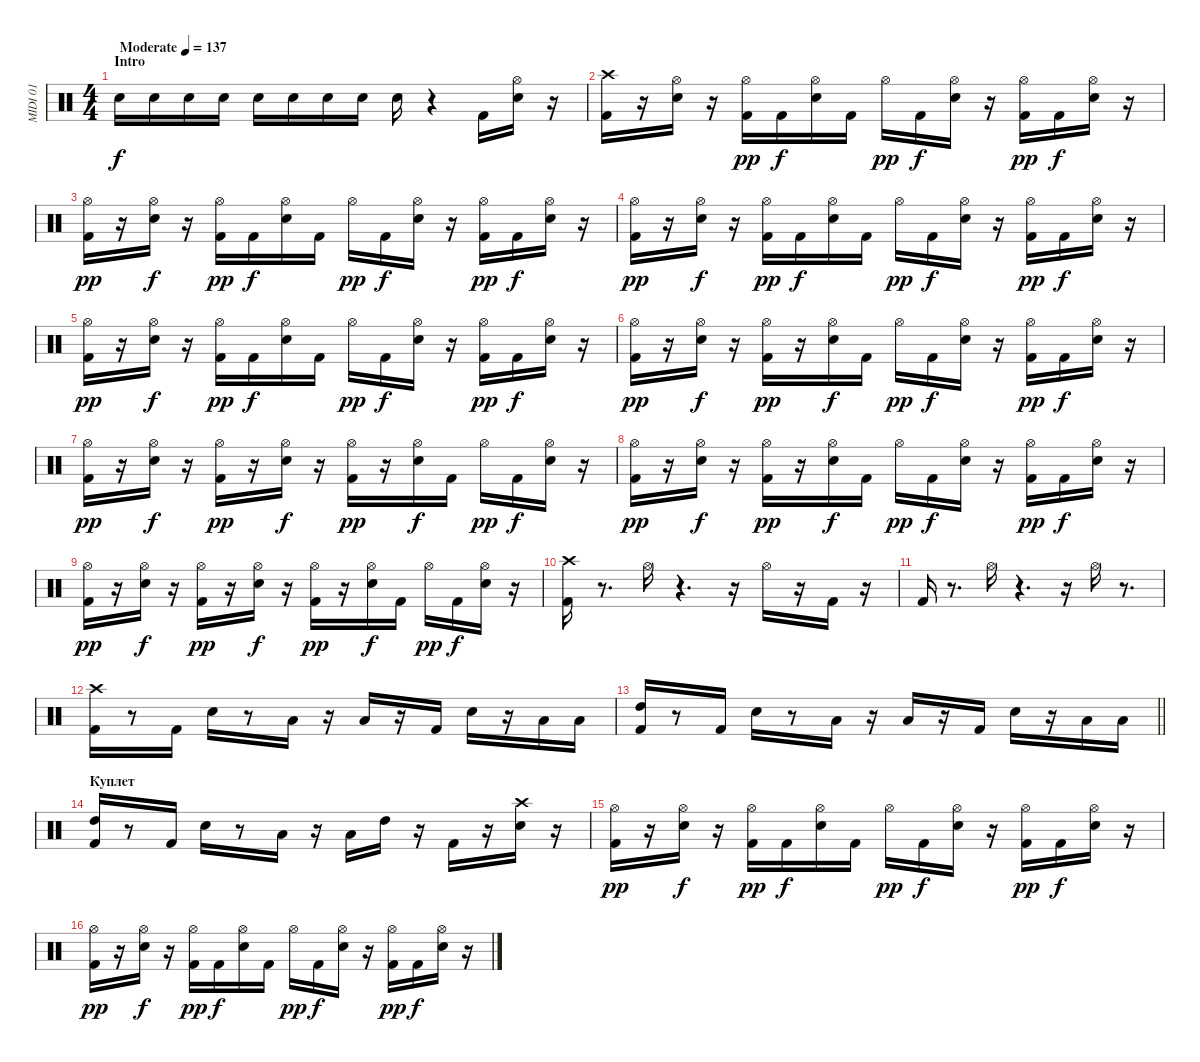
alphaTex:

\track ("MIDI 01" "MIDI 01") {instrument percussion}
\staff {score}
\articulation defaults
\ts (4 4)
\section ("" "Intro")
\tempo (137 "Moderate")
\clef neutral
\ks c "Snare (hit) 2".16{dy f} "Snare (hit) 2".16 "Snare (hit) 2".16 "Snare (hit) 2".16 "Snare (hit) 2".16 "Snare (hit) 2".16 "Snare (hit) 2".16 "Snare (hit) 2".16 "Snare (hit) 2".16
r.4 "Kick (hit) 2".16 ("Snare (hit) 2" "Hi-Hat (open)").16 r.16 |
("Kick (hit) 2" "Crash high (hit)").16 r.16 ("Snare (hit) 2" "Hi-Hat (open)").16 r.16 ("Kick (hit) 2" "Hi-Hat (open)").16{dy pp} "Kick (hit) 2".16{dy f} ("Snare (hit) 2" "Hi-Hat (open)").16 "Kick (hit) 2".16 "Hi-Hat (open)".16{dy pp} "Kick (hit) 2".16{dy f} ("Snare (hit) 2" "Hi-Hat (open)").16 r.16 ("Kick (hit) 2" "Hi-Hat (open)").16{dy pp} "Kick (hit) 2".16{dy f} ("Snare (hit) 2" "Hi-Hat (open)").16 r.16 |
("Kick (hit) 2" "Hi-Hat (open)").16{dy pp} r.16 ("Snare (hit) 2" "Hi-Hat (open)").16{dy f} r.16 ("Kick (hit) 2" "Hi-Hat (open)").16{dy pp} "Kick (hit) 2".16{dy f} ("Snare (hit) 2" "Hi-Hat (open)").16 "Kick (hit) 2".16 "Hi-Hat (open)".16{dy pp} "Kick (hit) 2".16{dy f} ("Snare (hit) 2" "Hi-Hat (open)").16 r.16 ("Kick (hit) 2" "Hi-Hat (open)").16{dy pp} "Kick (hit) 2".16{dy f} ("Snare (hit) 2" "Hi-Hat (open)").16 r.16 |
("Kick (hit) 2" "Hi-Hat (open)").16{dy pp} r.16 ("Snare (hit) 2" "Hi-Hat (open)").16{dy f} r.16 ("Kick (hit) 2" "Hi-Hat (open)").16{dy pp} "Kick (hit) 2".16{dy f} ("Snare (hit) 2" "Hi-Hat (open)").16 "Kick (hit) 2".16 "Hi-Hat (open)".16{dy pp} "Kick (hit) 2".16{dy f} ("Snare (hit) 2" "Hi-Hat (open)").16 r.16 ("Kick (hit) 2" "Hi-Hat (open)").16{dy pp} "Kick (hit) 2".16{dy f} ("Snare (hit) 2" "Hi-Hat (open)").16 r.16 |
("Kick (hit) 2" "Hi-Hat (open)").16{dy pp} r.16 ("Snare (hit) 2" "Hi-Hat (open)").16{dy f} r.16 ("Kick (hit) 2" "Hi-Hat (open)").16{dy pp} "Kick (hit) 2".16{dy f} ("Snare (hit) 2" "Hi-Hat (open)").16 "Kick (hit) 2".16 "Hi-Hat (open)".16{dy pp} "Kick (hit) 2".16{dy f} ("Snare (hit) 2" "Hi-Hat (open)").16 r.16 ("Kick (hit) 2" "Hi-Hat (open)").16{dy pp} "Kick (hit) 2".16{dy f} ("Snare (hit) 2" "Hi-Hat (open)").16 r.16 |
("Kick (hit) 2" "Hi-Hat (open)").16{dy pp} r.16 ("Hi-Hat (open)" "Snare (hit) 2").16{dy f} r.16 ("Hi-Hat (open)" "Kick (hit) 2").16{dy pp} r.16 ("Hi-Hat (open)" "Snare (hit) 2").16{dy f} "Kick (hit) 2".16 "Hi-Hat (open)".16{dy pp} "Kick (hit) 2".16{dy f} ("Hi-Hat (open)" "Snare (hit) 2").16 r.16 ("Hi-Hat (open)" "Kick (hit) 2").16{dy pp} "Kick (hit) 2".16{dy f} ("Hi-Hat (open)" "Snare (hit) 2").16 r.16 |
("Hi-Hat (open)" "Kick (hit) 2").16{dy pp} r.16 ("Hi-Hat (open)" "Snare (hit) 2").16{dy f} r.16 ("Hi-Hat (open)" "Kick (hit) 2").16{dy pp} r.16 ("Hi-Hat (open)" "Snare (hit) 2").16{dy f} r.16 ("Hi-Hat (open)" "Kick (hit) 2").16{dy pp} r.16 ("Hi-Hat (open)" "Snare (hit) 2").16{dy f} "Kick (hit) 2".16 "Hi-Hat (open)".16{dy pp} "Kick (hit) 2".16{dy f} ("Hi-Hat (open)" "Snare (hit) 2").16 r.16 |
("Hi-Hat (open)" "Kick (hit) 2").16{dy pp} r.16 ("Hi-Hat (open)" "Snare (hit) 2").16{dy f} r.16 ("Hi-Hat (open)" "Kick (hit) 2").16{dy pp} r.16 ("Hi-Hat (open)" "Snare (hit) 2").16{dy f} "Kick (hit) 2".16 "Hi-Hat (open)".16{dy pp} "Kick (hit) 2".16{dy f} ("Hi-Hat (open)" "Snare (hit) 2").16 r.16 ("Hi-Hat (open)" "Kick (hit) 2").16{dy pp} "Kick (hit) 2".16{dy f} ("Hi-Hat (open)" "Snare (hit) 2").16 r.16 |
("Hi-Hat (open)" "Kick (hit) 2").16{dy pp} r.16 ("Hi-Hat (open)" "Snare (hit) 2").16{dy f} r.16 ("Hi-Hat (open)" "Kick (hit) 2").16{dy pp} r.16 ("Hi-Hat (open)" "Snare (hit) 2").16{dy f} r.16 ("Hi-Hat (open)" "Kick (hit) 2").16{dy pp} r.16 ("Hi-Hat (open)" "Snare (hit) 2").16{dy f} "Kick (hit) 2".16 "Hi-Hat (open)".16{dy pp} "Kick (hit) 2".16{dy f} ("Hi-Hat (open)" "Snare (hit) 2").16 r.16 |
("Kick (hit) 2" "Crash high (hit)").16 r.8{d} "Hi-Hat (open)".16 r.4{d} r.16 "Hi-Hat (open)".16 r.16 "Kick (hit) 2".16 r.16 |
"Kick (hit) 2".16 r.8{d} "Hi-Hat (open)".16 r.4{d} r.16 "Hi-Hat (open)".16 r.8{d} |
("Kick (hit) 2" "Crash high (hit)").16 r.8 "Kick (hit) 2".16 "Snare (hit) 2".16 r.8 "Low Floor Tom (hit)".16 r.16 "Low Tom (hit)".16 r.16 "Kick (hit) 2".16 "Snare (hit) 2".16 r.16 "Low Floor Tom (hit)".16 "Low Tom (hit)".16 |
\barLineRight lightlight
("High Tom (hit)" "Kick (hit) 2").16 r.8 "Kick (hit) 2".16 "Snare (hit) 2".16 r.8 "Low Floor Tom (hit)".16 r.16 "Low Tom (hit)".16 r.16 "Kick (hit) 2".16 "Snare (hit) 2".16 r.16 "Low Floor Tom (hit)".16 "Low Tom (hit)".16 |
\section ("" "Куплет")
("Kick (hit) 2" "High Tom (hit)").16 r.8 "Kick (hit) 2".16 "Snare (hit) 2".16 r.8 "Low Floor Tom (hit)".16 r.16 "Low Tom (hit)".16 "High Tom (hit)".16 r.16 "Kick (hit) 2".16 r.16 ("Snare (hit) 2" "Crash high (hit)").16 r.16 |
("Hi-Hat (open)" "Kick (hit) 2").16{dy pp} r.16 ("Snare (hit) 2" "Hi-Hat (open)").16{dy f} r.16 ("Kick (hit) 2" "Hi-Hat (open)").16{dy pp} "Kick (hit) 2".16{dy f} ("Snare (hit) 2" "Hi-Hat (open)").16 "Kick (hit) 2".16 "Hi-Hat (open)".16{dy pp} "Kick (hit) 2".16{dy f} ("Snare (hit) 2" "Hi-Hat (open)").16 r.16 ("Kick (hit) 2" "Hi-Hat (open)").16{dy pp} "Kick (hit) 2".16{dy f} ("Snare (hit) 2" "Hi-Hat (open)").16 r.16 |
("Hi-Hat (open)" "Kick (hit) 2").16{dy pp} r.16 ("Snare (hit) 2" "Hi-Hat (open)").16{dy f} r.16 ("Kick (hit) 2" "Hi-Hat (open)").16{dy pp} "Kick (hit) 2".16{dy f} ("Snare (hit) 2" "Hi-Hat (open)").16 "Kick (hit) 2".16 "Hi-Hat (open)".16{dy pp} "Kick (hit) 2".16{dy f} ("Snare (hit) 2" "Hi-Hat (open)").16 r.16 ("Kick (hit) 2" "Hi-Hat (open)").16{dy pp} "Kick (hit) 2".16{dy f} ("Snare (hit) 2" "Hi-Hat (open)").16 r.16
